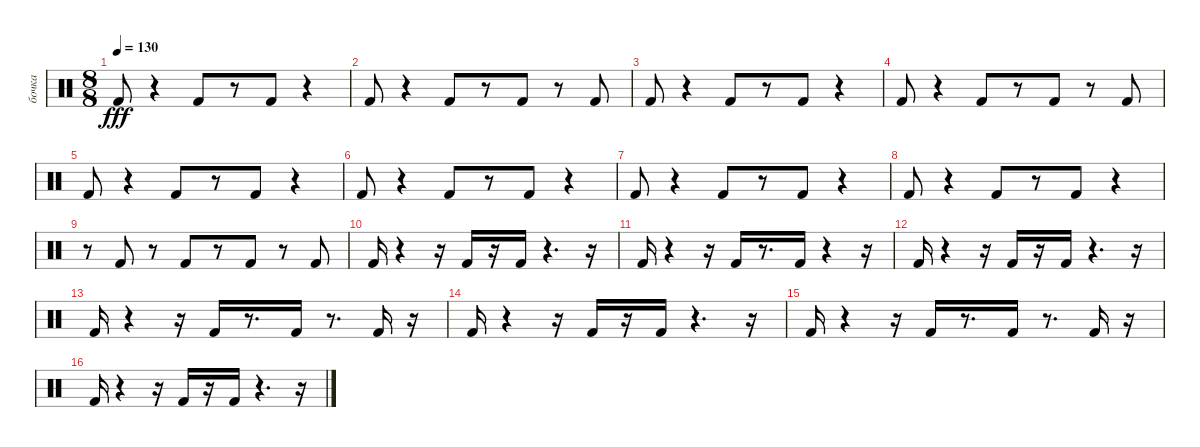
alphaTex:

\track ("бочка" "бочка") {instrument percussion}
\staff {score}
\articulation defaults
\ts (8 8)
\tempo 130
\clef neutral
\ks c "Kick (hit) 2".8{dy fff}
r.4 "Kick (hit) 2".8 r.8 "Kick (hit) 2".8 r.4 |
"Kick (hit) 2".8 r.4 "Kick (hit) 2".8 r.8 "Kick (hit) 2".8 r.8 "Kick (hit) 2".8 |
"Kick (hit) 2".8 r.4 "Kick (hit) 2".8 r.8 "Kick (hit) 2".8 r.4 |
"Kick (hit) 2".8 r.4 "Kick (hit) 2".8 r.8 "Kick (hit) 2".8 r.8 "Kick (hit) 2".8 |
"Kick (hit) 2".8 r.4 "Kick (hit) 2".8 r.8 "Kick (hit) 2".8 r.4 |
"Kick (hit) 2".8 r.4 "Kick (hit) 2".8 r.8 "Kick (hit) 2".8 r.4 |
"Kick (hit) 2".8 r.4 "Kick (hit) 2".8 r.8 "Kick (hit) 2".8 r.4 |
"Kick (hit) 2".8 r.4 "Kick (hit) 2".8 r.8 "Kick (hit) 2".8 r.4 |
r.8 "Kick (hit) 2".8 r.8 "Kick (hit) 2".8 r.8 "Kick (hit) 2".8 r.8 "Kick (hit) 2".8 |
"Kick (hit) 2".16 r.4 r.16 "Kick (hit) 2".16 r.16 "Kick (hit) 2".16 r.4{d} r.16 |
"Kick (hit) 2".16 r.4 r.16 "Kick (hit) 2".16 r.8{d} "Kick (hit) 2".16 r.4 r.16 |
"Kick (hit) 2".16 r.4 r.16 "Kick (hit) 2".16 r.16 "Kick (hit) 2".16 r.4{d} r.16 |
"Kick (hit) 2".16 r.4 r.16 "Kick (hit) 2".16 r.8{d} "Kick (hit) 2".16 r.8{d} "Kick (hit) 2".16 r.16 |
"Kick (hit) 2".16 r.4 r.16 "Kick (hit) 2".16 r.16 "Kick (hit) 2".16 r.4{d} r.16 |
"Kick (hit) 2".16 r.4 r.16 "Kick (hit) 2".16 r.8{d} "Kick (hit) 2".16 r.8{d} "Kick (hit) 2".16 r.16 |
"Kick (hit) 2".16 r.4 r.16 "Kick (hit) 2".16 r.16 "Kick (hit) 2".16 r.4{d} r.16
